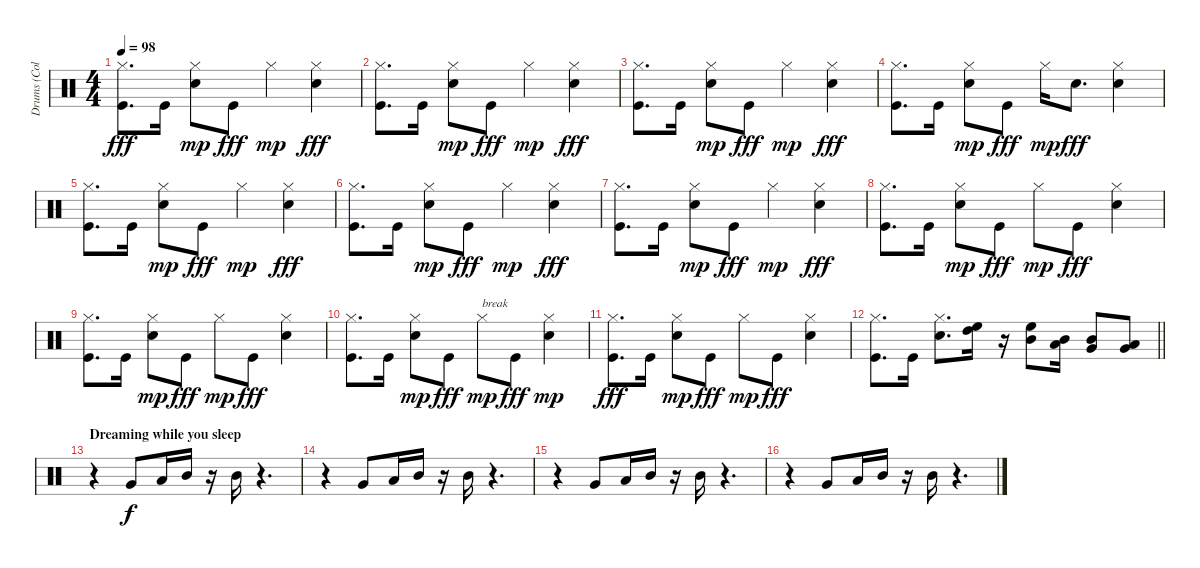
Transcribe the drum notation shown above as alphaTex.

\track ("Drums (Collins)" "Drums (Col") {instrument percussion}
\staff {score}
\articulation defaults
\ts (4 4)
\tempo 98
\clef neutral
\ks c
("Hi-Hat (closed)" "Kick (hit)").8{d dy fff} "Kick (hit)".16 ("Electric Snare (hit)" "Hi-Hat (closed)").8{dy mp} "Kick (hit)".8{dy fff} "Hi-Hat (closed)".4{dy mp} ("Hi-Hat (closed)" "Electric Snare (hit)").4{dy fff} |
("Hi-Hat (closed)" "Kick (hit)").8{d} "Kick (hit)".16 ("Electric Snare (hit)" "Hi-Hat (closed)").8{dy mp} "Kick (hit)".8{dy fff} "Hi-Hat (closed)".4{dy mp} ("Hi-Hat (closed)" "Electric Snare (hit)").4{dy fff} |
("Hi-Hat (closed)" "Kick (hit)").8{d} "Kick (hit)".16 ("Electric Snare (hit)" "Hi-Hat (closed)").8{dy mp} "Kick (hit)".8{dy fff} "Hi-Hat (closed)".4{dy mp} ("Hi-Hat (closed)" "Electric Snare (hit)").4{dy fff} |
("Hi-Hat (closed)" "Kick (hit)").8{d} "Kick (hit)".16 ("Electric Snare (hit)" "Hi-Hat (closed)").8{dy mp} "Kick (hit)".8{dy fff} "Hi-Hat (closed)".16{dy mp} "Electric Snare (hit)".8{d dy fff} ("Hi-Hat (closed)" "Electric Snare (hit)").4 |
("Hi-Hat (closed)" "Kick (hit)").8{d} "Kick (hit)".16 ("Electric Snare (hit)" "Hi-Hat (closed)").8{dy mp} "Kick (hit)".8{dy fff} "Hi-Hat (closed)".4{dy mp} ("Hi-Hat (closed)" "Electric Snare (hit)").4{dy fff} |
("Hi-Hat (closed)" "Kick (hit)").8{d} "Kick (hit)".16 ("Electric Snare (hit)" "Hi-Hat (closed)").8{dy mp} "Kick (hit)".8{dy fff} "Hi-Hat (closed)".4{dy mp} ("Hi-Hat (closed)" "Electric Snare (hit)").4{dy fff} |
("Hi-Hat (closed)" "Kick (hit)").8{d} "Kick (hit)".16 ("Electric Snare (hit)" "Hi-Hat (closed)").8{dy mp} "Kick (hit)".8{dy fff} "Hi-Hat (closed)".4{dy mp} ("Hi-Hat (closed)" "Electric Snare (hit)").4{dy fff} |
("Hi-Hat (closed)" "Kick (hit)").8{d} "Kick (hit)".16 ("Electric Snare (hit)" "Hi-Hat (closed)").8{dy mp} "Kick (hit)".8{dy fff} "Hi-Hat (closed)".8{dy mp} "Kick (hit)".8{dy fff} ("Hi-Hat (closed)" "Electric Snare (hit)").4 |
("Hi-Hat (closed)" "Kick (hit)").8{d} "Kick (hit)".16 ("Electric Snare (hit)" "Hi-Hat (closed)").8{dy mp} "Kick (hit)".8{dy fff} "Hi-Hat (closed)".8{dy mp} "Kick (hit)".8{dy fff} ("Hi-Hat (closed)" "Electric Snare (hit)").4 |
("Hi-Hat (closed)" "Kick (hit)").8{d} "Kick (hit)".16 ("Electric Snare (hit)" "Hi-Hat (closed)").8{dy mp} "Kick (hit)".8{dy fff} "Hi-Hat (closed)".8{txt "break" dy mp} "Kick (hit)".8{dy fff} ("Hi-Hat (closed)" "Electric Snare (hit)").4{dy mp} |
("Hi-Hat (closed)" "Kick (hit)").8{d dy fff} "Kick (hit)".16 ("Electric Snare (hit)" "Hi-Hat (closed)").8{dy mp} "Kick (hit)".8{dy fff} "Hi-Hat (closed)".8{dy mp} "Kick (hit)".8{dy fff} ("Hi-Hat (closed)" "Electric Snare (hit)").4 |
\barLineRight lightlight
("Hi-Hat (closed)" "Kick (hit)").8{d} "Kick (hit)".16 ("Hi-Hat (closed)" "Electric Snare (hit)").8{d} ("High Tom (hit)" "High Floor Tom (hit)").16 r.16 ("High Floor Tom (hit)" "Mid Tom (hit)").8 ("Mid Tom (hit)" "Low Tom (hit)").16 ("Very Low Tom (hit)" "Mid Tom (hit)").8 ("Very Low Tom (hit)" "Low Floor Tom (hit)").8 |
\section ("" "Dreaming while you sleep")
r.4 "Very Low Tom (hit)".8{dy f} "Low Tom (hit)".16 "Mid Tom (hit)".16 r.16 "Mid Tom (hit)".16 r.4{d} |
r.4 "Very Low Tom (hit)".8 "Low Tom (hit)".16 "Mid Tom (hit)".16 r.16 "Mid Tom (hit)".16 r.4{d} |
r.4 "Very Low Tom (hit)".8 "Low Tom (hit)".16 "Mid Tom (hit)".16 r.16 "Mid Tom (hit)".16 r.4{d} |
r.4 "Very Low Tom (hit)".8 "Low Tom (hit)".16 "Mid Tom (hit)".16 r.16 "Mid Tom (hit)".16 r.4{d}
